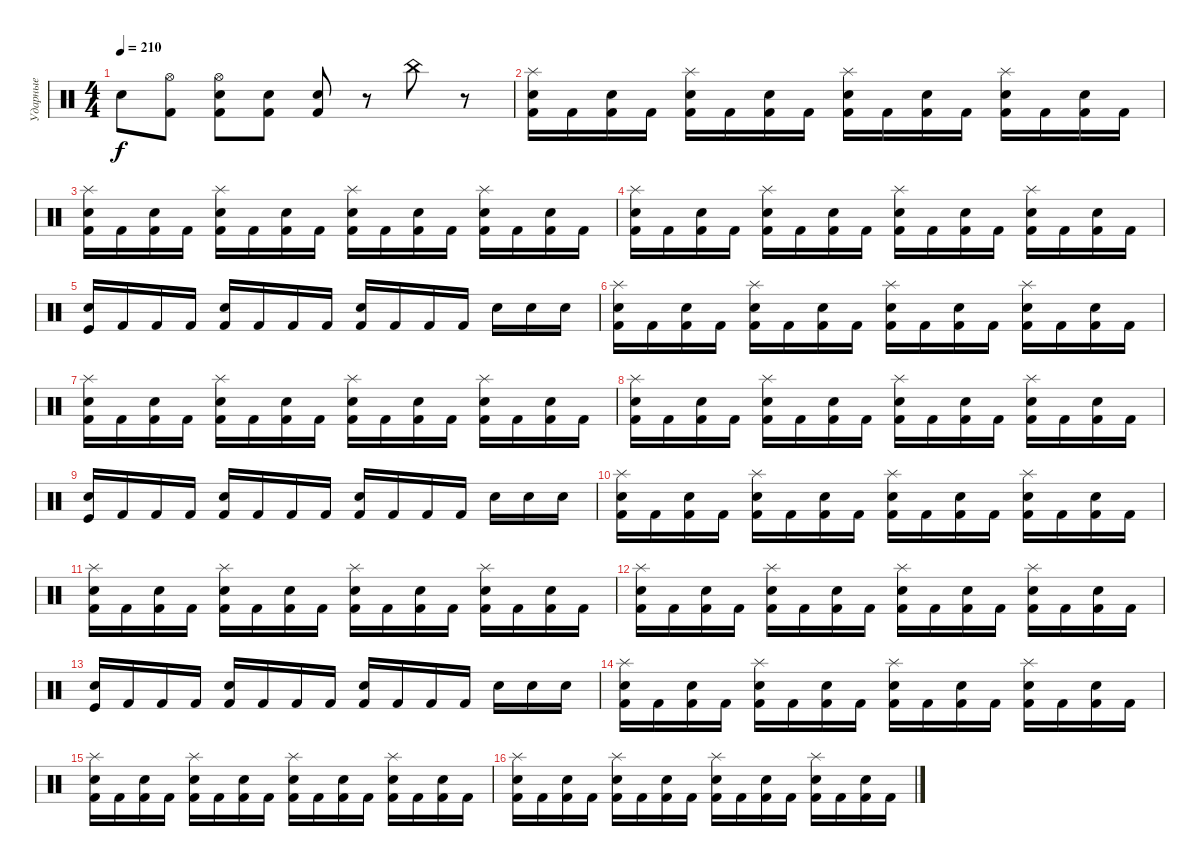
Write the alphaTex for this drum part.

\track ("Ударные" "Ударные") {instrument percussion}
\staff {score}
\articulation defaults
\ts (4 4)
\tempo 210
\clef neutral
\ks c "Electric Snare (hit)".8{dy f}
("Kick (hit) 2" "Hi-Hat (open)").8 ("Kick (hit) 2" "Electric Snare (hit)" "Hi-Hat (open)").8 ("Kick (hit) 2" "Electric Snare (hit)").8 ("Electric Snare (hit)" "Kick (hit) 2").8 r.8 "China (hit)".8 r.8 |
("Kick (hit) 2" "Electric Snare (hit)" "Splash (hit)").16 "Kick (hit) 2".16 ("Kick (hit) 2" "Electric Snare (hit)").16 "Kick (hit) 2".16 ("Kick (hit) 2" "Electric Snare (hit)" "Splash (hit)").16 "Kick (hit) 2".16 ("Kick (hit) 2" "Electric Snare (hit)").16 "Kick (hit) 2".16 ("Kick (hit) 2" "Electric Snare (hit)" "Splash (hit)").16 "Kick (hit) 2".16 ("Kick (hit) 2" "Electric Snare (hit)").16 "Kick (hit) 2".16 ("Kick (hit) 2" "Electric Snare (hit)" "Splash (hit)").16 "Kick (hit) 2".16 ("Kick (hit) 2" "Electric Snare (hit)").16 "Kick (hit) 2".16 |
("Kick (hit) 2" "Electric Snare (hit)" "Splash (hit)").16 "Kick (hit) 2".16 ("Kick (hit) 2" "Electric Snare (hit)").16 "Kick (hit) 2".16 ("Kick (hit) 2" "Electric Snare (hit)" "Splash (hit)").16 "Kick (hit) 2".16 ("Kick (hit) 2" "Electric Snare (hit)").16 "Kick (hit) 2".16 ("Kick (hit) 2" "Electric Snare (hit)" "Splash (hit)").16 "Kick (hit) 2".16 ("Kick (hit) 2" "Electric Snare (hit)").16 "Kick (hit) 2".16 ("Kick (hit) 2" "Electric Snare (hit)" "Splash (hit)").16 "Kick (hit) 2".16 ("Kick (hit) 2" "Electric Snare (hit)").16 "Kick (hit) 2".16 |
("Kick (hit) 2" "Electric Snare (hit)" "Splash (hit)").16 "Kick (hit) 2".16 ("Kick (hit) 2" "Electric Snare (hit)").16 "Kick (hit) 2".16 ("Kick (hit) 2" "Electric Snare (hit)" "Splash (hit)").16 "Kick (hit) 2".16 ("Kick (hit) 2" "Electric Snare (hit)").16 "Kick (hit) 2".16 ("Kick (hit) 2" "Electric Snare (hit)" "Splash (hit)").16 "Kick (hit) 2".16 ("Kick (hit) 2" "Electric Snare (hit)").16 "Kick (hit) 2".16 ("Kick (hit) 2" "Electric Snare (hit)" "Splash (hit)").16 "Kick (hit) 2".16 ("Kick (hit) 2" "Electric Snare (hit)").16 "Kick (hit) 2".16 |
("Kick (hit)" "Electric Snare (hit)").16 "Kick (hit) 2".16 "Kick (hit) 2".16 "Kick (hit) 2".16 ("Kick (hit) 2" "Electric Snare (hit)").16 "Kick (hit) 2".16 "Kick (hit) 2".16 "Kick (hit) 2".16 ("Kick (hit) 2" "Electric Snare (hit)").16 "Kick (hit) 2".16 "Kick (hit) 2".16 "Kick (hit) 2".16 "Electric Snare (hit)".16 "Electric Snare (hit)".16 "Electric Snare (hit)".16 |
("Kick (hit) 2" "Electric Snare (hit)" "Splash (hit)").16 "Kick (hit) 2".16 ("Kick (hit) 2" "Electric Snare (hit)").16 "Kick (hit) 2".16 ("Kick (hit) 2" "Electric Snare (hit)" "Splash (hit)").16 "Kick (hit) 2".16 ("Kick (hit) 2" "Electric Snare (hit)").16 "Kick (hit) 2".16 ("Kick (hit) 2" "Electric Snare (hit)" "Splash (hit)").16 "Kick (hit) 2".16 ("Kick (hit) 2" "Electric Snare (hit)").16 "Kick (hit) 2".16 ("Kick (hit) 2" "Electric Snare (hit)" "Splash (hit)").16 "Kick (hit) 2".16 ("Kick (hit) 2" "Electric Snare (hit)").16 "Kick (hit) 2".16 |
("Kick (hit) 2" "Electric Snare (hit)" "Splash (hit)").16 "Kick (hit) 2".16 ("Kick (hit) 2" "Electric Snare (hit)").16 "Kick (hit) 2".16 ("Kick (hit) 2" "Electric Snare (hit)" "Splash (hit)").16 "Kick (hit) 2".16 ("Kick (hit) 2" "Electric Snare (hit)").16 "Kick (hit) 2".16 ("Kick (hit) 2" "Electric Snare (hit)" "Splash (hit)").16 "Kick (hit) 2".16 ("Kick (hit) 2" "Electric Snare (hit)").16 "Kick (hit) 2".16 ("Kick (hit) 2" "Electric Snare (hit)" "Splash (hit)").16 "Kick (hit) 2".16 ("Kick (hit) 2" "Electric Snare (hit)").16 "Kick (hit) 2".16 |
("Kick (hit) 2" "Electric Snare (hit)" "Splash (hit)").16 "Kick (hit) 2".16 ("Kick (hit) 2" "Electric Snare (hit)").16 "Kick (hit) 2".16 ("Kick (hit) 2" "Electric Snare (hit)" "Splash (hit)").16 "Kick (hit) 2".16 ("Kick (hit) 2" "Electric Snare (hit)").16 "Kick (hit) 2".16 ("Kick (hit) 2" "Electric Snare (hit)" "Splash (hit)").16 "Kick (hit) 2".16 ("Kick (hit) 2" "Electric Snare (hit)").16 "Kick (hit) 2".16 ("Kick (hit) 2" "Electric Snare (hit)" "Splash (hit)").16 "Kick (hit) 2".16 ("Kick (hit) 2" "Electric Snare (hit)").16 "Kick (hit) 2".16 |
("Kick (hit)" "Electric Snare (hit)").16 "Kick (hit) 2".16 "Kick (hit) 2".16 "Kick (hit) 2".16 ("Kick (hit) 2" "Electric Snare (hit)").16 "Kick (hit) 2".16 "Kick (hit) 2".16 "Kick (hit) 2".16 ("Kick (hit) 2" "Electric Snare (hit)").16 "Kick (hit) 2".16 "Kick (hit) 2".16 "Kick (hit) 2".16 "Electric Snare (hit)".16 "Electric Snare (hit)".16 "Electric Snare (hit)".16 |
("Kick (hit) 2" "Electric Snare (hit)" "Splash (hit)").16 "Kick (hit) 2".16 ("Kick (hit) 2" "Electric Snare (hit)").16 "Kick (hit) 2".16 ("Kick (hit) 2" "Electric Snare (hit)" "Splash (hit)").16 "Kick (hit) 2".16 ("Kick (hit) 2" "Electric Snare (hit)").16 "Kick (hit) 2".16 ("Kick (hit) 2" "Electric Snare (hit)" "Splash (hit)").16 "Kick (hit) 2".16 ("Kick (hit) 2" "Electric Snare (hit)").16 "Kick (hit) 2".16 ("Kick (hit) 2" "Electric Snare (hit)" "Splash (hit)").16 "Kick (hit) 2".16 ("Kick (hit) 2" "Electric Snare (hit)").16 "Kick (hit) 2".16 |
("Kick (hit) 2" "Electric Snare (hit)" "Splash (hit)").16 "Kick (hit) 2".16 ("Kick (hit) 2" "Electric Snare (hit)").16 "Kick (hit) 2".16 ("Kick (hit) 2" "Electric Snare (hit)" "Splash (hit)").16 "Kick (hit) 2".16 ("Kick (hit) 2" "Electric Snare (hit)").16 "Kick (hit) 2".16 ("Kick (hit) 2" "Electric Snare (hit)" "Splash (hit)").16 "Kick (hit) 2".16 ("Kick (hit) 2" "Electric Snare (hit)").16 "Kick (hit) 2".16 ("Kick (hit) 2" "Electric Snare (hit)" "Splash (hit)").16 "Kick (hit) 2".16 ("Kick (hit) 2" "Electric Snare (hit)").16 "Kick (hit) 2".16 |
("Kick (hit) 2" "Electric Snare (hit)" "Splash (hit)").16 "Kick (hit) 2".16 ("Kick (hit) 2" "Electric Snare (hit)").16 "Kick (hit) 2".16 ("Kick (hit) 2" "Electric Snare (hit)" "Splash (hit)").16 "Kick (hit) 2".16 ("Kick (hit) 2" "Electric Snare (hit)").16 "Kick (hit) 2".16 ("Kick (hit) 2" "Electric Snare (hit)" "Splash (hit)").16 "Kick (hit) 2".16 ("Kick (hit) 2" "Electric Snare (hit)").16 "Kick (hit) 2".16 ("Kick (hit) 2" "Electric Snare (hit)" "Splash (hit)").16 "Kick (hit) 2".16 ("Kick (hit) 2" "Electric Snare (hit)").16 "Kick (hit) 2".16 |
("Kick (hit)" "Electric Snare (hit)").16 "Kick (hit) 2".16 "Kick (hit) 2".16 "Kick (hit) 2".16 ("Kick (hit) 2" "Electric Snare (hit)").16 "Kick (hit) 2".16 "Kick (hit) 2".16 "Kick (hit) 2".16 ("Kick (hit) 2" "Electric Snare (hit)").16 "Kick (hit) 2".16 "Kick (hit) 2".16 "Kick (hit) 2".16 "Electric Snare (hit)".16 "Electric Snare (hit)".16 "Electric Snare (hit)".16 |
("Kick (hit) 2" "Electric Snare (hit)" "Splash (hit)").16 "Kick (hit) 2".16 ("Kick (hit) 2" "Electric Snare (hit)").16 "Kick (hit) 2".16 ("Kick (hit) 2" "Electric Snare (hit)" "Splash (hit)").16 "Kick (hit) 2".16 ("Kick (hit) 2" "Electric Snare (hit)").16 "Kick (hit) 2".16 ("Kick (hit) 2" "Electric Snare (hit)" "Splash (hit)").16 "Kick (hit) 2".16 ("Kick (hit) 2" "Electric Snare (hit)").16 "Kick (hit) 2".16 ("Kick (hit) 2" "Electric Snare (hit)" "Splash (hit)").16 "Kick (hit) 2".16 ("Kick (hit) 2" "Electric Snare (hit)").16 "Kick (hit) 2".16 |
("Kick (hit) 2" "Electric Snare (hit)" "Splash (hit)").16 "Kick (hit) 2".16 ("Kick (hit) 2" "Electric Snare (hit)").16 "Kick (hit) 2".16 ("Kick (hit) 2" "Electric Snare (hit)" "Splash (hit)").16 "Kick (hit) 2".16 ("Kick (hit) 2" "Electric Snare (hit)").16 "Kick (hit) 2".16 ("Kick (hit) 2" "Electric Snare (hit)" "Splash (hit)").16 "Kick (hit) 2".16 ("Kick (hit) 2" "Electric Snare (hit)").16 "Kick (hit) 2".16 ("Kick (hit) 2" "Electric Snare (hit)" "Splash (hit)").16 "Kick (hit) 2".16 ("Kick (hit) 2" "Electric Snare (hit)").16 "Kick (hit) 2".16 |
("Kick (hit) 2" "Electric Snare (hit)" "Splash (hit)").16 "Kick (hit) 2".16 ("Kick (hit) 2" "Electric Snare (hit)").16 "Kick (hit) 2".16 ("Kick (hit) 2" "Electric Snare (hit)" "Splash (hit)").16 "Kick (hit) 2".16 ("Kick (hit) 2" "Electric Snare (hit)").16 "Kick (hit) 2".16 ("Kick (hit) 2" "Electric Snare (hit)" "Splash (hit)").16 "Kick (hit) 2".16 ("Kick (hit) 2" "Electric Snare (hit)").16 "Kick (hit) 2".16 ("Kick (hit) 2" "Electric Snare (hit)" "Splash (hit)").16 "Kick (hit) 2".16 ("Kick (hit) 2" "Electric Snare (hit)").16 "Kick (hit) 2".16
